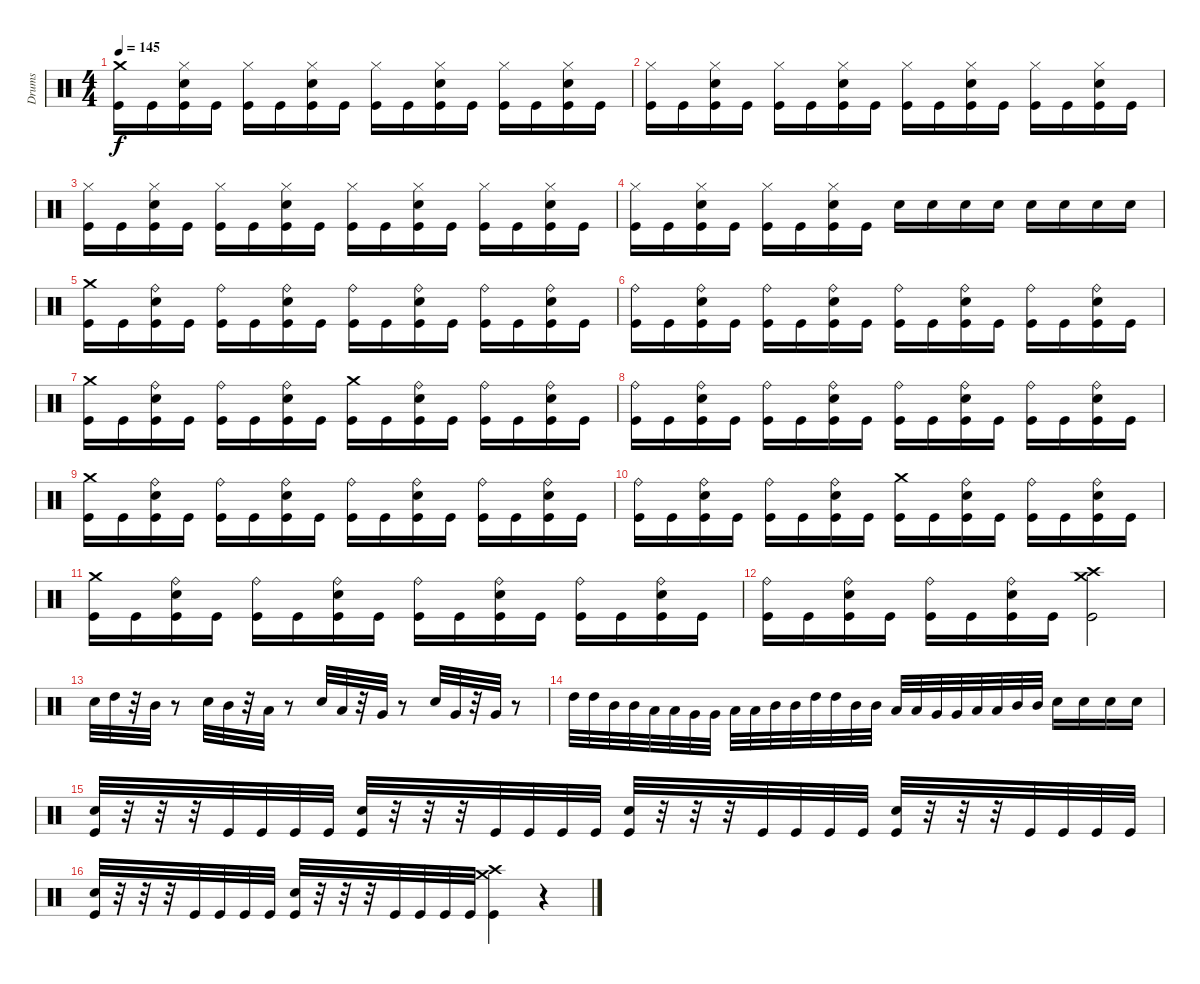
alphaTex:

\track ("Drums" "Drums") {instrument percussion}
\staff {score}
\articulation defaults
\ts (4 4)
\tempo 145
\clef neutral
\ks c
("Crash medium (hit)" "Kick (hit)").16{dy f} "Kick (hit)".16 ("Hi-Hat (closed)" "Snare (hit) 2" "Kick (hit)").16 "Kick (hit)".16 ("Hi-Hat (closed)" "Kick (hit)").16 "Kick (hit)".16 ("Hi-Hat (closed)" "Snare (hit) 2" "Kick (hit)").16 "Kick (hit)".16 ("Hi-Hat (closed)" "Kick (hit)").16 "Kick (hit)".16 ("Hi-Hat (closed)" "Snare (hit) 2" "Kick (hit)").16 "Kick (hit)".16 ("Hi-Hat (closed)" "Kick (hit)").16 "Kick (hit)".16 ("Hi-Hat (closed)" "Snare (hit) 2" "Kick (hit)").16 "Kick (hit)".16 |
("Hi-Hat (closed)" "Kick (hit)").16 "Kick (hit)".16 ("Hi-Hat (closed)" "Snare (hit) 2" "Kick (hit)").16 "Kick (hit)".16 ("Hi-Hat (closed)" "Kick (hit)").16 "Kick (hit)".16 ("Hi-Hat (closed)" "Snare (hit) 2" "Kick (hit)").16 "Kick (hit)".16 ("Hi-Hat (closed)" "Kick (hit)").16 "Kick (hit)".16 ("Hi-Hat (closed)" "Snare (hit) 2" "Kick (hit)").16 "Kick (hit)".16 ("Hi-Hat (closed)" "Kick (hit)").16 "Kick (hit)".16 ("Hi-Hat (closed)" "Snare (hit) 2" "Kick (hit)").16 "Kick (hit)".16 |
("Hi-Hat (closed)" "Kick (hit)").16 "Kick (hit)".16 ("Hi-Hat (closed)" "Snare (hit) 2" "Kick (hit)").16 "Kick (hit)".16 ("Hi-Hat (closed)" "Kick (hit)").16 "Kick (hit)".16 ("Hi-Hat (closed)" "Snare (hit) 2" "Kick (hit)").16 "Kick (hit)".16 ("Hi-Hat (closed)" "Kick (hit)").16 "Kick (hit)".16 ("Hi-Hat (closed)" "Snare (hit) 2" "Kick (hit)").16 "Kick (hit)".16 ("Hi-Hat (closed)" "Kick (hit)").16 "Kick (hit)".16 ("Hi-Hat (closed)" "Snare (hit) 2" "Kick (hit)").16 "Kick (hit)".16 |
("Hi-Hat (closed)" "Kick (hit)").16 "Kick (hit)".16 ("Hi-Hat (closed)" "Snare (hit) 2" "Kick (hit)").16 "Kick (hit)".16 ("Hi-Hat (closed)" "Kick (hit)").16 "Kick (hit)".16 ("Hi-Hat (closed)" "Snare (hit) 2" "Kick (hit)").16 "Kick (hit)".16 "Snare (hit) 2".16 "Snare (hit) 2".16 "Snare (hit) 2".16 "Snare (hit) 2".16 "Snare (hit) 2".16 "Snare (hit) 2".16 "Snare (hit) 2".16 "Snare (hit) 2".16 |
("Crash medium (hit)" "Kick (hit)").16 "Kick (hit)".16 ("Ride (bell)" "Snare (hit) 2" "Kick (hit)").16 "Kick (hit)".16 ("Ride (bell)" "Kick (hit)").16 "Kick (hit)".16 ("Ride (bell)" "Snare (hit) 2" "Kick (hit)").16 "Kick (hit)".16 ("Ride (bell)" "Kick (hit)").16 "Kick (hit)".16 ("Ride (bell)" "Snare (hit) 2" "Kick (hit)").16 "Kick (hit)".16 ("Ride (bell)" "Kick (hit)").16 "Kick (hit)".16 ("Ride (bell)" "Snare (hit) 2" "Kick (hit)").16 "Kick (hit)".16 |
("Ride (bell)" "Kick (hit)").16 "Kick (hit)".16 ("Ride (bell)" "Snare (hit) 2" "Kick (hit)").16 "Kick (hit)".16 ("Ride (bell)" "Kick (hit)").16 "Kick (hit)".16 ("Ride (bell)" "Snare (hit) 2" "Kick (hit)").16 "Kick (hit)".16 ("Ride (bell)" "Kick (hit)").16 "Kick (hit)".16 ("Ride (bell)" "Snare (hit) 2" "Kick (hit)").16 "Kick (hit)".16 ("Ride (bell)" "Kick (hit)").16 "Kick (hit)".16 ("Ride (bell)" "Snare (hit) 2" "Kick (hit)").16 "Kick (hit)".16 |
("Crash medium (hit)" "Kick (hit)").16 "Kick (hit)".16 ("Ride (bell)" "Snare (hit) 2" "Kick (hit)").16 "Kick (hit)".16 ("Ride (bell)" "Kick (hit)").16 "Kick (hit)".16 ("Ride (bell)" "Snare (hit) 2" "Kick (hit)").16 "Kick (hit)".16 ("Crash medium (hit)" "Kick (hit)").16 "Kick (hit)".16 ("Ride (bell)" "Snare (hit) 2" "Kick (hit)").16 "Kick (hit)".16 ("Ride (bell)" "Kick (hit)").16 "Kick (hit)".16 ("Ride (bell)" "Snare (hit) 2" "Kick (hit)").16 "Kick (hit)".16 |
("Ride (bell)" "Kick (hit)").16 "Kick (hit)".16 ("Ride (bell)" "Snare (hit) 2" "Kick (hit)").16 "Kick (hit)".16 ("Ride (bell)" "Kick (hit)").16 "Kick (hit)".16 ("Ride (bell)" "Snare (hit) 2" "Kick (hit)").16 "Kick (hit)".16 ("Ride (bell)" "Kick (hit)").16 "Kick (hit)".16 ("Ride (bell)" "Snare (hit) 2" "Kick (hit)").16 "Kick (hit)".16 ("Ride (bell)" "Kick (hit)").16 "Kick (hit)".16 ("Ride (bell)" "Snare (hit) 2" "Kick (hit)").16 "Kick (hit)".16 |
("Crash medium (hit)" "Kick (hit)").16 "Kick (hit)".16 ("Ride (bell)" "Snare (hit) 2" "Kick (hit)").16 "Kick (hit)".16 ("Ride (bell)" "Kick (hit)").16 "Kick (hit)".16 ("Ride (bell)" "Snare (hit) 2" "Kick (hit)").16 "Kick (hit)".16 ("Ride (bell)" "Kick (hit)").16 "Kick (hit)".16 ("Ride (bell)" "Snare (hit) 2" "Kick (hit)").16 "Kick (hit)".16 ("Ride (bell)" "Kick (hit)").16 "Kick (hit)".16 ("Ride (bell)" "Snare (hit) 2" "Kick (hit)").16 "Kick (hit)".16 |
("Ride (bell)" "Kick (hit)").16 "Kick (hit)".16 ("Ride (bell)" "Snare (hit) 2" "Kick (hit)").16 "Kick (hit)".16 ("Ride (bell)" "Kick (hit)").16 "Kick (hit)".16 ("Ride (bell)" "Snare (hit) 2" "Kick (hit)").16 "Kick (hit)".16 ("Crash medium (hit)" "Kick (hit)").16 "Kick (hit)".16 ("Ride (bell)" "Snare (hit) 2" "Kick (hit)").16 "Kick (hit)".16 ("Ride (bell)" "Kick (hit)").16 "Kick (hit)".16 ("Ride (bell)" "Snare (hit) 2" "Kick (hit)").16 "Kick (hit)".16 |
("Crash medium (hit)" "Kick (hit)").16 "Kick (hit)".16 ("Ride (bell)" "Snare (hit) 2" "Kick (hit)").16 "Kick (hit)".16 ("Ride (bell)" "Kick (hit)").16 "Kick (hit)".16 ("Ride (bell)" "Snare (hit) 2" "Kick (hit)").16 "Kick (hit)".16 ("Ride (bell)" "Kick (hit)").16 "Kick (hit)".16 ("Ride (bell)" "Snare (hit) 2" "Kick (hit)").16 "Kick (hit)".16 ("Ride (bell)" "Kick (hit)").16 "Kick (hit)".16 ("Ride (bell)" "Snare (hit) 2" "Kick (hit)").16 "Kick (hit)".16 |
("Ride (bell)" "Kick (hit)").16 "Kick (hit)".16 ("Ride (bell)" "Snare (hit) 2" "Kick (hit)").16 "Kick (hit)".16 ("Ride (bell)" "Kick (hit)").16 "Kick (hit)".16 ("Ride (bell)" "Snare (hit) 2" "Kick (hit)").16 "Kick (hit)".16 ("Crash medium (hit)" "Crash high (hit)" "Kick (hit)").2 |
"Snare (hit) 2".32 "High Tom (hit)".32 r.32 "Mid Tom (hit)".32 r.8 "Snare (hit) 2".32 "Mid Tom (hit)".32 r.32 "Low Tom (hit)".32 r.8 "Snare (hit) 2".32 "Low Tom (hit)".32 r.32 "Very Low Tom (hit)".32 r.8 "Snare (hit) 2".32 "Very Low Tom (hit)".32 r.32 "Very Low Tom (hit)".32 r.8 |
"High Tom (hit)".32 "High Tom (hit)".32 "Mid Tom (hit)".32 "Mid Tom (hit)".32 "Low Tom (hit)".32 "Low Tom (hit)".32 "Very Low Tom (hit)".32 "Very Low Tom (hit)".32 "Low Tom (hit)".32 "Low Tom (hit)".32 "Mid Tom (hit)".32 "Mid Tom (hit)".32 "High Tom (hit)".32 "High Tom (hit)".32 "Mid Tom (hit)".32 "Mid Tom (hit)".32 "Low Tom (hit)".32 "Low Tom (hit)".32 "Very Low Tom (hit)".32 "Very Low Tom (hit)".32 "Low Tom (hit)".32 "Low Tom (hit)".32 "Mid Tom (hit)".32 "Mid Tom (hit)".32 "Snare (hit) 2".16 "Snare (hit) 2".16 "Snare (hit) 2".16 "Snare (hit) 2".16 |
("Snare (hit) 2" "Kick (hit)").32 r.32 r.32 r.32 "Kick (hit)".32 "Kick (hit)".32 "Kick (hit)".32 "Kick (hit)".32 ("Snare (hit) 2" "Kick (hit)").32 r.32 r.32 r.32 "Kick (hit)".32 "Kick (hit)".32 "Kick (hit)".32 "Kick (hit)".32 ("Snare (hit) 2" "Kick (hit)").32 r.32 r.32 r.32 "Kick (hit)".32 "Kick (hit)".32 "Kick (hit)".32 "Kick (hit)".32 ("Snare (hit) 2" "Kick (hit)").32 r.32 r.32 r.32 "Kick (hit)".32 "Kick (hit)".32 "Kick (hit)".32 "Kick (hit)".32 |
("Snare (hit) 2" "Kick (hit)").32 r.32 r.32 r.32 "Kick (hit)".32 "Kick (hit)".32 "Kick (hit)".32 "Kick (hit)".32 ("Snare (hit) 2" "Kick (hit)").32 r.32 r.32 r.32 "Kick (hit)".32 "Kick (hit)".32 "Kick (hit)".32 "Kick (hit)".32 ("Crash medium (hit)" "Crash high (hit)" "Kick (hit)").4 r.4
